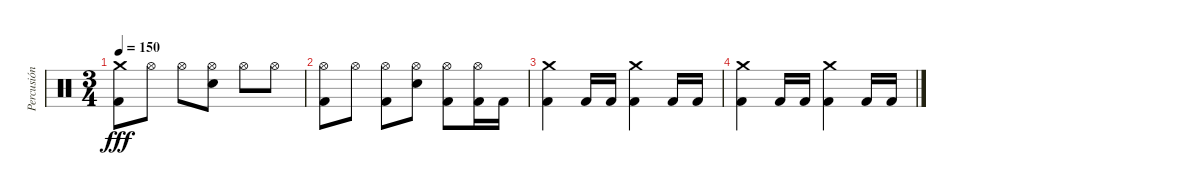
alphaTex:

\track ("Percusión" "Percusión") {instrument percussion}
\staff {score}
\articulation defaults
\ts (3 4)
\tempo 150
\clef neutral
\ks c
("Crash medium (hit)" "Kick (hit) 2").8{dy fff} "Hi-Hat (open)".8 "Hi-Hat (open)".8 ("Hi-Hat (open)" "Snare (hit) 2").8 "Hi-Hat (open)".8 "Hi-Hat (open)".8 |
("Hi-Hat (open)" "Kick (hit) 2").8 "Hi-Hat (open)".8 ("Hi-Hat (open)" "Kick (hit) 2").8 ("Hi-Hat (open)" "Snare (hit) 2").8 ("Hi-Hat (open)" "Kick (hit) 2").8 ("Hi-Hat (open)" "Kick (hit) 2").16 "Kick (hit) 2".16 |
("Crash medium (hit)" "Kick (hit) 2").4 "Kick (hit) 2".16 "Kick (hit) 2".16 ("Crash medium (hit)" "Kick (hit) 2").4 "Kick (hit) 2".16 "Kick (hit) 2".16 |
("Crash medium (hit)" "Kick (hit) 2").4 "Kick (hit) 2".16 "Kick (hit) 2".16 ("Crash medium (hit)" "Kick (hit) 2").4 "Kick (hit) 2".16 "Kick (hit) 2".16
